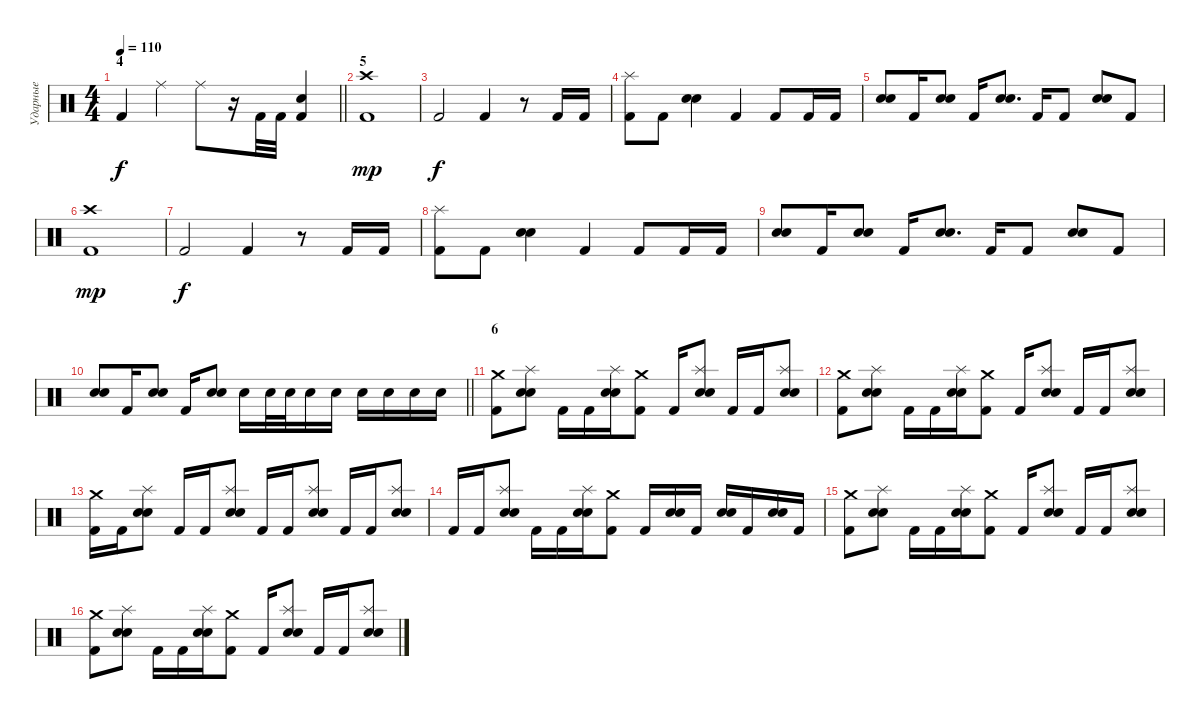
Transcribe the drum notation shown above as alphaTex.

\track ("Ударные" "Ударные") {instrument percussion}
\staff {score}
\articulation defaults
\ts (4 4)
\section ("" "4")
\tempo 110
\clef neutral
\barLineRight lightlight
\ks c "Kick (hit) 2".4{dy f} "Ride (middle)".4 "Ride (middle)".8
r.16 "Kick (hit) 2".32 "Kick (hit) 2".32 ("Electric Snare (hit)" "Kick (hit) 2").4 |
\section ("" "5")
("Crash high (hit)" "Kick (hit) 2").1{dy mp} |
"Kick (hit) 2".2{dy f} "Kick (hit) 2".4 r.8 "Kick (hit) 2".16 "Kick (hit) 2".16 |
("Splash (hit)" "Kick (hit) 2").8 "Kick (hit) 2".8 ("Electric Snare (hit)" "Snare (hit) 2").4 "Kick (hit) 2".4 "Kick (hit) 2".8 "Kick (hit) 2".16 "Kick (hit) 2".16 |
("Electric Snare (hit)" "Snare (hit) 2").8 "Kick (hit) 2".16 ("Electric Snare (hit)" "Snare (hit) 2").8 "Kick (hit) 2".16 ("Electric Snare (hit)" "Snare (hit) 2").8{d} "Kick (hit) 2".16 "Kick (hit) 2".8 ("Electric Snare (hit)" "Snare (hit) 2").8 "Kick (hit) 2".8 |
("Crash high (hit)" "Kick (hit) 2").1{dy mp} |
"Kick (hit) 2".2{dy f} "Kick (hit) 2".4 r.8 "Kick (hit) 2".16 "Kick (hit) 2".16 |
("Splash (hit)" "Kick (hit) 2").8 "Kick (hit) 2".8 ("Electric Snare (hit)" "Snare (hit) 2").4 "Kick (hit) 2".4 "Kick (hit) 2".8 "Kick (hit) 2".16 "Kick (hit) 2".16 |
("Electric Snare (hit)" "Snare (hit) 2").8 "Kick (hit) 2".16 ("Electric Snare (hit)" "Snare (hit) 2").8 "Kick (hit) 2".16 ("Electric Snare (hit)" "Snare (hit) 2").8{d} "Kick (hit) 2".16 "Kick (hit) 2".8 ("Electric Snare (hit)" "Snare (hit) 2").8 "Kick (hit) 2".8 |
\barLineRight lightlight
("Electric Snare (hit)" "Snare (hit) 2").8 "Kick (hit) 2".16 ("Electric Snare (hit)" "Snare (hit) 2").8 "Kick (hit) 2".16 ("Electric Snare (hit)" "Snare (hit) 2").8 "Electric Snare (hit)".16 "Electric Snare (hit)".32 "Electric Snare (hit)".32 "Electric Snare (hit)".16 "Electric Snare (hit)".16 "Electric Snare (hit)".16 "Electric Snare (hit)".16 "Electric Snare (hit)".16 "Electric Snare (hit)".16 |
\section ("" "6")
("Crash medium (hit)" "Kick (hit) 2").8 ("Splash (hit)" "Electric Snare (hit)" "Snare (hit) 2").8 "Kick (hit) 2".16 "Kick (hit) 2".16 ("Splash (hit)" "Electric Snare (hit)" "Snare (hit) 2").16 ("Crash medium (hit)" "Kick (hit) 2").8 "Kick (hit) 2".16 ("Splash (hit)" "Electric Snare (hit)" "Snare (hit) 2").8 "Kick (hit) 2".16 "Kick (hit) 2".16 ("Splash (hit)" "Electric Snare (hit)" "Snare (hit) 2").8 |
("Crash medium (hit)" "Kick (hit) 2").8 ("Splash (hit)" "Electric Snare (hit)" "Snare (hit) 2").8 "Kick (hit) 2".16 "Kick (hit) 2".16 ("Splash (hit)" "Electric Snare (hit)" "Snare (hit) 2").16 ("Crash medium (hit)" "Kick (hit) 2").8 "Kick (hit) 2".16 ("Splash (hit)" "Electric Snare (hit)" "Snare (hit) 2").8 "Kick (hit) 2".16 "Kick (hit) 2".16 ("Splash (hit)" "Electric Snare (hit)" "Snare (hit) 2").8 |
("Crash medium (hit)" "Kick (hit) 2").16 "Kick (hit) 2".16 ("Splash (hit)" "Electric Snare (hit)" "Snare (hit) 2").8 "Kick (hit) 2".16 "Kick (hit) 2".16 ("Splash (hit)" "Electric Snare (hit)" "Snare (hit) 2").8 "Kick (hit) 2".16 "Kick (hit) 2".16 ("Splash (hit)" "Electric Snare (hit)" "Snare (hit) 2").8 "Kick (hit) 2".16 "Kick (hit) 2".16 ("Splash (hit)" "Electric Snare (hit)" "Snare (hit) 2").8 |
"Kick (hit) 2".16 "Kick (hit) 2".16 ("Splash (hit)" "Electric Snare (hit)" "Snare (hit) 2").8 "Kick (hit) 2".16 "Kick (hit) 2".16 ("Splash (hit)" "Electric Snare (hit)" "Snare (hit) 2").16 ("Crash medium (hit)" "Kick (hit) 2").8 "Kick (hit) 2".16 ("Electric Snare (hit)" "Snare (hit) 2").16 "Kick (hit) 2".16 ("Electric Snare (hit)" "Snare (hit) 2").16 "Kick (hit) 2".16 ("Electric Snare (hit)" "Snare (hit) 2").16 "Kick (hit) 2".16 |
("Crash medium (hit)" "Kick (hit) 2").8 ("Splash (hit)" "Electric Snare (hit)" "Snare (hit) 2").8 "Kick (hit) 2".16 "Kick (hit) 2".16 ("Splash (hit)" "Electric Snare (hit)" "Snare (hit) 2").16 ("Crash medium (hit)" "Kick (hit) 2").8 "Kick (hit) 2".16 ("Splash (hit)" "Electric Snare (hit)" "Snare (hit) 2").8 "Kick (hit) 2".16 "Kick (hit) 2".16 ("Splash (hit)" "Electric Snare (hit)" "Snare (hit) 2").8 |
("Crash medium (hit)" "Kick (hit) 2").8 ("Splash (hit)" "Electric Snare (hit)" "Snare (hit) 2").8 "Kick (hit) 2".16 "Kick (hit) 2".16 ("Splash (hit)" "Electric Snare (hit)" "Snare (hit) 2").16 ("Crash medium (hit)" "Kick (hit) 2").8 "Kick (hit) 2".16 ("Splash (hit)" "Electric Snare (hit)" "Snare (hit) 2").8 "Kick (hit) 2".16 "Kick (hit) 2".16 ("Splash (hit)" "Electric Snare (hit)" "Snare (hit) 2").8
